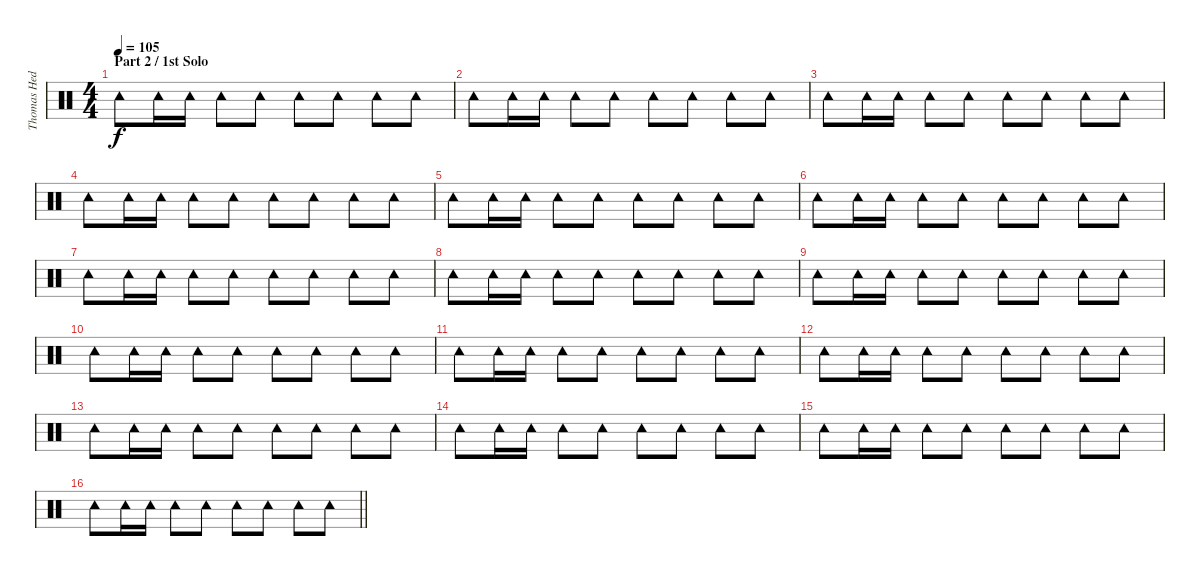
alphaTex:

\track ("Thomas Hedlund" "Thomas Hed") {instrument percussion}
\staff {score}
\articulation defaults
\ts (4 4)
\section ("" "Part 2 / 1st Solo")
\tempo 105
\clef neutral
\ks c "Tambourine (hit)".8{dy f} "Tambourine (hit)".16 "Tambourine (hit)".16 "Tambourine (hit)".8 "Tambourine (hit)".8 "Tambourine (hit)".8 "Tambourine (hit)".8 "Tambourine (hit)".8 "Tambourine (hit)".8
|
"Tambourine (hit)".8 "Tambourine (hit)".16 "Tambourine (hit)".16 "Tambourine (hit)".8 "Tambourine (hit)".8 "Tambourine (hit)".8 "Tambourine (hit)".8 "Tambourine (hit)".8 "Tambourine (hit)".8 |
"Tambourine (hit)".8 "Tambourine (hit)".16 "Tambourine (hit)".16 "Tambourine (hit)".8 "Tambourine (hit)".8 "Tambourine (hit)".8 "Tambourine (hit)".8 "Tambourine (hit)".8 "Tambourine (hit)".8 |
"Tambourine (hit)".8 "Tambourine (hit)".16 "Tambourine (hit)".16 "Tambourine (hit)".8 "Tambourine (hit)".8 "Tambourine (hit)".8 "Tambourine (hit)".8 "Tambourine (hit)".8 "Tambourine (hit)".8 |
"Tambourine (hit)".8 "Tambourine (hit)".16 "Tambourine (hit)".16 "Tambourine (hit)".8 "Tambourine (hit)".8 "Tambourine (hit)".8 "Tambourine (hit)".8 "Tambourine (hit)".8 "Tambourine (hit)".8 |
"Tambourine (hit)".8 "Tambourine (hit)".16 "Tambourine (hit)".16 "Tambourine (hit)".8 "Tambourine (hit)".8 "Tambourine (hit)".8 "Tambourine (hit)".8 "Tambourine (hit)".8 "Tambourine (hit)".8 |
"Tambourine (hit)".8 "Tambourine (hit)".16 "Tambourine (hit)".16 "Tambourine (hit)".8 "Tambourine (hit)".8 "Tambourine (hit)".8 "Tambourine (hit)".8 "Tambourine (hit)".8 "Tambourine (hit)".8 |
"Tambourine (hit)".8 "Tambourine (hit)".16 "Tambourine (hit)".16 "Tambourine (hit)".8 "Tambourine (hit)".8 "Tambourine (hit)".8 "Tambourine (hit)".8 "Tambourine (hit)".8 "Tambourine (hit)".8 |
"Tambourine (hit)".8 "Tambourine (hit)".16 "Tambourine (hit)".16 "Tambourine (hit)".8 "Tambourine (hit)".8 "Tambourine (hit)".8 "Tambourine (hit)".8 "Tambourine (hit)".8 "Tambourine (hit)".8 |
"Tambourine (hit)".8 "Tambourine (hit)".16 "Tambourine (hit)".16 "Tambourine (hit)".8 "Tambourine (hit)".8 "Tambourine (hit)".8 "Tambourine (hit)".8 "Tambourine (hit)".8 "Tambourine (hit)".8 |
"Tambourine (hit)".8 "Tambourine (hit)".16 "Tambourine (hit)".16 "Tambourine (hit)".8 "Tambourine (hit)".8 "Tambourine (hit)".8 "Tambourine (hit)".8 "Tambourine (hit)".8 "Tambourine (hit)".8 |
"Tambourine (hit)".8 "Tambourine (hit)".16 "Tambourine (hit)".16 "Tambourine (hit)".8 "Tambourine (hit)".8 "Tambourine (hit)".8 "Tambourine (hit)".8 "Tambourine (hit)".8 "Tambourine (hit)".8 |
"Tambourine (hit)".8 "Tambourine (hit)".16 "Tambourine (hit)".16 "Tambourine (hit)".8 "Tambourine (hit)".8 "Tambourine (hit)".8 "Tambourine (hit)".8 "Tambourine (hit)".8 "Tambourine (hit)".8 |
"Tambourine (hit)".8 "Tambourine (hit)".16 "Tambourine (hit)".16 "Tambourine (hit)".8 "Tambourine (hit)".8 "Tambourine (hit)".8 "Tambourine (hit)".8 "Tambourine (hit)".8 "Tambourine (hit)".8 |
"Tambourine (hit)".8 "Tambourine (hit)".16 "Tambourine (hit)".16 "Tambourine (hit)".8 "Tambourine (hit)".8 "Tambourine (hit)".8 "Tambourine (hit)".8 "Tambourine (hit)".8 "Tambourine (hit)".8 |
\barLineRight lightlight "Tambourine (hit)".8 "Tambourine (hit)".16 "Tambourine (hit)".16 "Tambourine (hit)".8 "Tambourine (hit)".8 "Tambourine (hit)".8 "Tambourine (hit)".8 "Tambourine (hit)".8 "Tambourine (hit)".8
